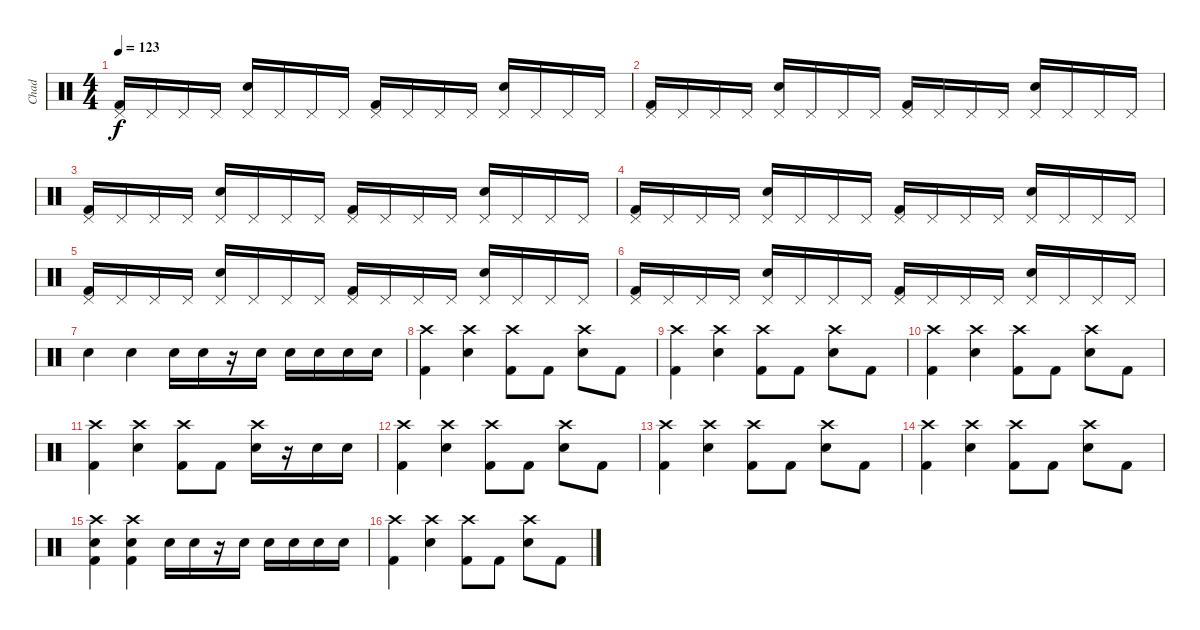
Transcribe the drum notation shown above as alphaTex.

\track ("Chad" "Chad") {instrument percussion}
\staff {score}
\articulation defaults
\ts (4 4)
\tempo 123
\clef neutral
\ks c
("Pedal Hi-Hat (hit)" "Kick (hit) 2").16{dy f} "Pedal Hi-Hat (hit)".16 "Pedal Hi-Hat (hit)".16 "Pedal Hi-Hat (hit)".16 ("Pedal Hi-Hat (hit)" "Electric Snare (hit)").16 "Pedal Hi-Hat (hit)".16 "Pedal Hi-Hat (hit)".16 "Pedal Hi-Hat (hit)".16 ("Pedal Hi-Hat (hit)" "Kick (hit) 2").16 "Pedal Hi-Hat (hit)".16 "Pedal Hi-Hat (hit)".16 "Pedal Hi-Hat (hit)".16 ("Pedal Hi-Hat (hit)" "Electric Snare (hit)").16 "Pedal Hi-Hat (hit)".16 "Pedal Hi-Hat (hit)".16 "Pedal Hi-Hat (hit)".16 |
("Pedal Hi-Hat (hit)" "Kick (hit) 2").16 "Pedal Hi-Hat (hit)".16 "Pedal Hi-Hat (hit)".16 "Pedal Hi-Hat (hit)".16 ("Pedal Hi-Hat (hit)" "Electric Snare (hit)").16 "Pedal Hi-Hat (hit)".16 "Pedal Hi-Hat (hit)".16 "Pedal Hi-Hat (hit)".16 ("Pedal Hi-Hat (hit)" "Kick (hit) 2").16 "Pedal Hi-Hat (hit)".16 "Pedal Hi-Hat (hit)".16 "Pedal Hi-Hat (hit)".16 ("Pedal Hi-Hat (hit)" "Electric Snare (hit)").16 "Pedal Hi-Hat (hit)".16 "Pedal Hi-Hat (hit)".16 "Pedal Hi-Hat (hit)".16 |
("Pedal Hi-Hat (hit)" "Kick (hit) 2").16 "Pedal Hi-Hat (hit)".16 "Pedal Hi-Hat (hit)".16 "Pedal Hi-Hat (hit)".16 ("Pedal Hi-Hat (hit)" "Electric Snare (hit)").16 "Pedal Hi-Hat (hit)".16 "Pedal Hi-Hat (hit)".16 "Pedal Hi-Hat (hit)".16 ("Pedal Hi-Hat (hit)" "Kick (hit) 2").16 "Pedal Hi-Hat (hit)".16 "Pedal Hi-Hat (hit)".16 "Pedal Hi-Hat (hit)".16 ("Pedal Hi-Hat (hit)" "Electric Snare (hit)").16 "Pedal Hi-Hat (hit)".16 "Pedal Hi-Hat (hit)".16 "Pedal Hi-Hat (hit)".16 |
("Pedal Hi-Hat (hit)" "Kick (hit) 2").16 "Pedal Hi-Hat (hit)".16 "Pedal Hi-Hat (hit)".16 "Pedal Hi-Hat (hit)".16 ("Pedal Hi-Hat (hit)" "Electric Snare (hit)").16 "Pedal Hi-Hat (hit)".16 "Pedal Hi-Hat (hit)".16 "Pedal Hi-Hat (hit)".16 ("Pedal Hi-Hat (hit)" "Kick (hit) 2").16 "Pedal Hi-Hat (hit)".16 "Pedal Hi-Hat (hit)".16 "Pedal Hi-Hat (hit)".16 ("Pedal Hi-Hat (hit)" "Electric Snare (hit)").16 "Pedal Hi-Hat (hit)".16 "Pedal Hi-Hat (hit)".16 "Pedal Hi-Hat (hit)".16 |
("Pedal Hi-Hat (hit)" "Kick (hit) 2").16 "Pedal Hi-Hat (hit)".16 "Pedal Hi-Hat (hit)".16 "Pedal Hi-Hat (hit)".16 ("Pedal Hi-Hat (hit)" "Electric Snare (hit)").16 "Pedal Hi-Hat (hit)".16 "Pedal Hi-Hat (hit)".16 "Pedal Hi-Hat (hit)".16 ("Pedal Hi-Hat (hit)" "Kick (hit) 2").16 "Pedal Hi-Hat (hit)".16 "Pedal Hi-Hat (hit)".16 "Pedal Hi-Hat (hit)".16 ("Pedal Hi-Hat (hit)" "Electric Snare (hit)").16 "Pedal Hi-Hat (hit)".16 "Pedal Hi-Hat (hit)".16 "Pedal Hi-Hat (hit)".16 |
("Pedal Hi-Hat (hit)" "Kick (hit) 2").16 "Pedal Hi-Hat (hit)".16 "Pedal Hi-Hat (hit)".16 "Pedal Hi-Hat (hit)".16 ("Pedal Hi-Hat (hit)" "Electric Snare (hit)").16 "Pedal Hi-Hat (hit)".16 "Pedal Hi-Hat (hit)".16 "Pedal Hi-Hat (hit)".16 ("Pedal Hi-Hat (hit)" "Kick (hit) 2").16 "Pedal Hi-Hat (hit)".16 "Pedal Hi-Hat (hit)".16 "Pedal Hi-Hat (hit)".16 ("Pedal Hi-Hat (hit)" "Electric Snare (hit)").16 "Pedal Hi-Hat (hit)".16 "Pedal Hi-Hat (hit)".16 "Pedal Hi-Hat (hit)".16 |
"Electric Snare (hit)".4 "Electric Snare (hit)".4 "Electric Snare (hit)".16 "Electric Snare (hit)".16 r.16 "Electric Snare (hit)".16 "Electric Snare (hit)".16 "Electric Snare (hit)".16 "Electric Snare (hit)".16 "Electric Snare (hit)".16 |
("Crash high (hit)" "Kick (hit) 2").4 ("Crash high (hit)" "Electric Snare (hit)").4 ("Crash high (hit)" "Kick (hit) 2").8 "Kick (hit) 2".8 ("Crash high (hit)" "Electric Snare (hit)").8 "Kick (hit) 2".8 |
("Crash high (hit)" "Kick (hit) 2").4 ("Crash high (hit)" "Electric Snare (hit)").4 ("Crash high (hit)" "Kick (hit) 2").8 "Kick (hit) 2".8 ("Crash high (hit)" "Electric Snare (hit)").8 "Kick (hit) 2".8 |
("Crash high (hit)" "Kick (hit) 2").4 ("Crash high (hit)" "Electric Snare (hit)").4 ("Crash high (hit)" "Kick (hit) 2").8 "Kick (hit) 2".8 ("Crash high (hit)" "Electric Snare (hit)").8 "Kick (hit) 2".8 |
("Crash high (hit)" "Kick (hit) 2").4 ("Crash high (hit)" "Electric Snare (hit)").4 ("Crash high (hit)" "Kick (hit) 2").8 "Kick (hit) 2".8 ("Crash high (hit)" "Electric Snare (hit)").16 r.16 "Electric Snare (hit)".16 "Electric Snare (hit)".16 |
("Crash high (hit)" "Kick (hit) 2").4 ("Crash high (hit)" "Electric Snare (hit)").4 ("Crash high (hit)" "Kick (hit) 2").8 "Kick (hit) 2".8 ("Crash high (hit)" "Electric Snare (hit)").8 "Kick (hit) 2".8 |
("Crash high (hit)" "Kick (hit) 2").4 ("Crash high (hit)" "Electric Snare (hit)").4 ("Crash high (hit)" "Kick (hit) 2").8 "Kick (hit) 2".8 ("Crash high (hit)" "Electric Snare (hit)").8 "Kick (hit) 2".8 |
("Crash high (hit)" "Kick (hit) 2").4 ("Crash high (hit)" "Electric Snare (hit)").4 ("Crash high (hit)" "Kick (hit) 2").8 "Kick (hit) 2".8 ("Crash high (hit)" "Electric Snare (hit)").8 "Kick (hit) 2".8 |
("Crash high (hit)" "Electric Snare (hit)" "Kick (hit) 2").4 ("Crash high (hit)" "Electric Snare (hit)" "Kick (hit) 2").4 "Electric Snare (hit)".16 "Electric Snare (hit)".16 r.16 "Electric Snare (hit)".16 "Electric Snare (hit)".16 "Electric Snare (hit)".16 "Electric Snare (hit)".16 "Electric Snare (hit)".16 |
("Crash high (hit)" "Kick (hit) 2").4 ("Crash high (hit)" "Electric Snare (hit)").4 ("Crash high (hit)" "Kick (hit) 2").8 "Kick (hit) 2".8 ("Crash high (hit)" "Electric Snare (hit)").8 "Kick (hit) 2".8
